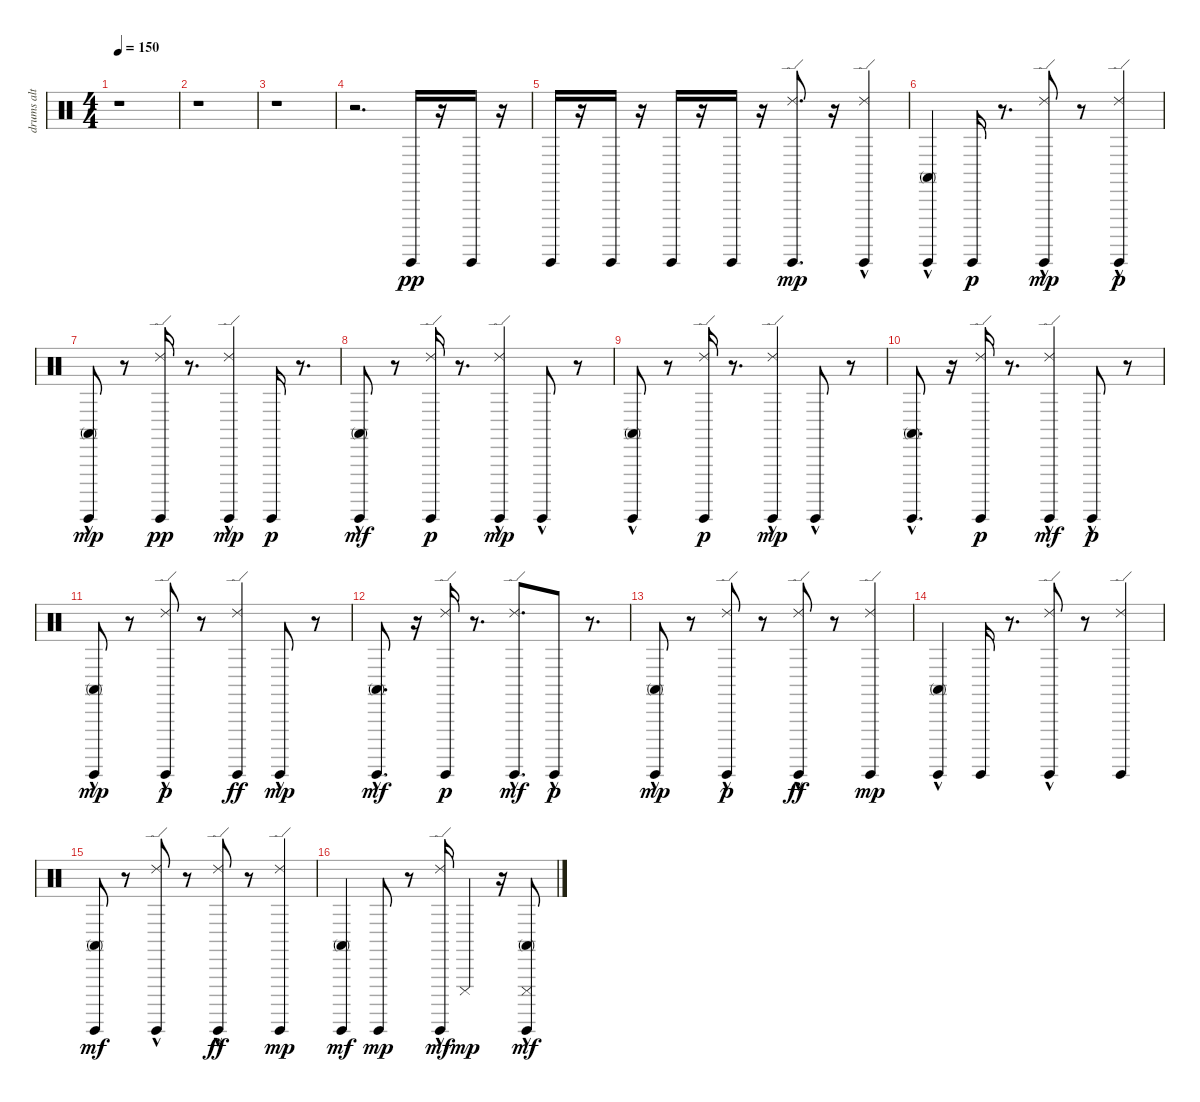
\track ("drums alt" "drums alt") {instrument percussion}
\staff {score}
\articulation defaults
\ts (4 4)
\tempo 150
\clef neutral
\ks c
r.1{dy pp} |
r.1 |
r.1 |
r.2{d} "Guiro (hit)".16 r.16 "Guiro (hit)".16 r.16 |
"Guiro (hit)".16 r.16 "Guiro (hit)".16 r.16 "Guiro (hit)".16 r.16 "Guiro (hit)".16 r.16 ("Guiro (hit)" "Ride (edge) 2").8{d dy mp} r.16 ("Guiro (hit)"{hac} "Ride (edge) 2").4 |
("Guiro (hit)"{hac} "Conga high (mute)").4 "Guiro (hit)".16{dy p} r.8{d} ("Guiro (hit)"{hac} "Ride (edge) 2"{hac}).8{dy mp} r.8 ("Ride (edge) 2" "Guiro (hit)"{hac}).4{dy p} |
("Conga high (mute)" "Guiro (hit)"{hac}).8{dy mp} r.8 ("Ride (edge) 2" "Guiro (hit)").16{dy pp} r.8{d} ("Guiro (hit)"{hac} "Ride (edge) 2").4{dy mp} "Guiro (hit)".16{dy p} r.8{d} |
("Guiro (hit)"{hac} "Conga high (mute)").8{dy mf} r.8 ("Guiro (hit)" "Ride (edge) 2").16{dy p} r.8{d} ("Ride (edge) 2" "Guiro (hit)"{hac}).4{dy mp} "Guiro (hit)"{hac}.8 r.8 |
("Guiro (hit)"{hac} "Conga high (mute)"{hac}).8 r.8 ("Ride (edge) 2" "Guiro (hit)").16{dy p} r.8{d} ("Guiro (hit)"{hac} "Ride (edge) 2").4{dy mp} "Guiro (hit)"{hac}.8 r.8 |
("Conga high (mute)" "Guiro (hit)"{hac}).8{d} r.16 ("Guiro (hit)" "Ride (edge) 2").16{dy p} r.8{d} ("Guiro (hit)"{hac} "Ride (edge) 2").4{dy mf} "Guiro (hit)"{hac}.8{dy p} r.8 |
("Conga high (mute)"{hac} "Guiro (hit)"{hac}).8{dy mp} r.8 ("Guiro (hit)"{hac} "Ride (edge) 2").8{dy p} r.8 ("Guiro (hit)" "Ride (edge) 2").4{dy ff} "Guiro (hit)"{hac}.8{dy mp} r.8 |
("Conga high (mute)" "Guiro (hit)"{hac}).8{d dy mf} r.16 ("Ride (edge) 2" "Guiro (hit)").16{dy p} r.8{d} ("Ride (edge) 2" "Guiro (hit)"{hac}).8{d dy mf} "Guiro (hit)"{hac}.8{dy p} r.8{d} |
("Conga high (mute)"{hac} "Guiro (hit)"{hac}).8{dy mp} r.8 ("Guiro (hit)"{hac} "Ride (edge) 2").8{dy p} r.8 ("Guiro (hit)"{hac} "Ride (edge) 2").8{dy ff} r.8 ("Ride (edge) 2" "Guiro (hit)").4{dy mp} |
("Conga high (mute)"{hac} "Guiro (hit)"{hac}).4 "Guiro (hit)".16 r.8{d} ("Ride (edge) 2"{hac} "Guiro (hit)"{hac}).8 r.8 ("Ride (edge) 2" "Guiro (hit)").4 |
("Conga high (mute)" "Guiro (hit)").8{dy mf} r.8 ("Guiro (hit)"{hac} "Ride (edge) 2").8 r.8 ("Guiro (hit)"{hac} "Ride (edge) 2"{hac}).8{dy ff} r.8 ("Ride (edge) 2" "Guiro (hit)").4{dy mp} |
("Conga high (mute)" "Guiro (hit)").4{dy mf} "Guiro (hit)".8{dy mp} r.8 ("Guiro (hit)"{hac} "Ride (edge) 2").16{dy mf} "Cuica (mute)".4{dy mp} r.16 ("Guiro (hit)"{hac} "Conga high (mute)" "Cuica (mute)").8{dy mf}
